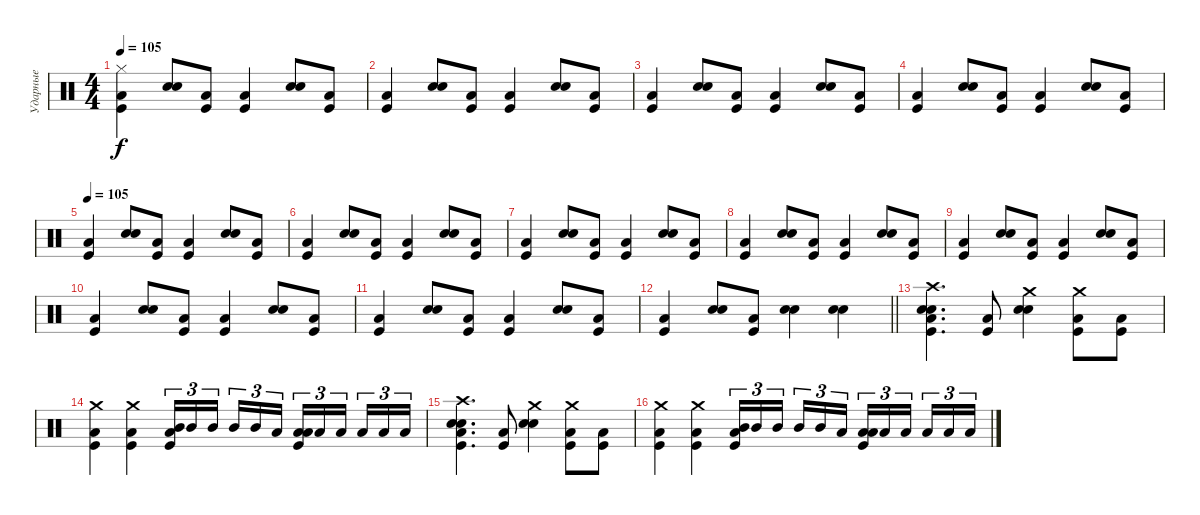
\track ("Ударные" "Ударные") {instrument percussion}
\staff {score}
\articulation defaults
\ts (4 4)
\tempo 105
\clef neutral
\ks c
("Hi-Hat (closed)" "Low Tom (hit)" "Kick (hit)").4{dy f} ("Electric Snare (hit)" "Snare (hit) 2").8 ("Low Tom (hit)" "Kick (hit)").8 ("Low Tom (hit)" "Kick (hit)").4 ("Electric Snare (hit)" "Snare (hit) 2").8 ("Low Tom (hit)" "Kick (hit)").8 |
("Low Tom (hit)" "Kick (hit)").4 ("Electric Snare (hit)" "Snare (hit) 2").8 ("Low Tom (hit)" "Kick (hit)").8 ("Low Tom (hit)" "Kick (hit)").4 ("Electric Snare (hit)" "Snare (hit) 2").8 ("Low Tom (hit)" "Kick (hit)").8 |
("Low Tom (hit)" "Kick (hit)").4 ("Electric Snare (hit)" "Snare (hit) 2").8 ("Low Tom (hit)" "Kick (hit)").8 ("Low Tom (hit)" "Kick (hit)").4 ("Electric Snare (hit)" "Snare (hit) 2").8 ("Low Tom (hit)" "Kick (hit)").8 |
("Low Tom (hit)" "Kick (hit)").4 ("Electric Snare (hit)" "Snare (hit) 2").8 ("Low Tom (hit)" "Kick (hit)").8 ("Low Tom (hit)" "Kick (hit)").4 ("Electric Snare (hit)" "Snare (hit) 2").8 ("Low Tom (hit)" "Kick (hit)").8 |
\tempo 105
("Low Tom (hit)" "Kick (hit)").4 ("Electric Snare (hit)" "Snare (hit) 2").8 ("Low Tom (hit)" "Kick (hit)").8 ("Low Tom (hit)" "Kick (hit)").4 ("Electric Snare (hit)" "Snare (hit) 2").8 ("Low Tom (hit)" "Kick (hit)").8 |
("Low Tom (hit)" "Kick (hit)").4 ("Electric Snare (hit)" "Snare (hit) 2").8 ("Low Tom (hit)" "Kick (hit)").8 ("Low Tom (hit)" "Kick (hit)").4 ("Electric Snare (hit)" "Snare (hit) 2").8 ("Low Tom (hit)" "Kick (hit)").8 |
("Low Tom (hit)" "Kick (hit)").4 ("Electric Snare (hit)" "Snare (hit) 2").8 ("Low Tom (hit)" "Kick (hit)").8 ("Low Tom (hit)" "Kick (hit)").4 ("Electric Snare (hit)" "Snare (hit) 2").8 ("Low Tom (hit)" "Kick (hit)").8 |
("Low Tom (hit)" "Kick (hit)").4 ("Electric Snare (hit)" "Snare (hit) 2").8 ("Low Tom (hit)" "Kick (hit)").8 ("Low Tom (hit)" "Kick (hit)").4 ("Electric Snare (hit)" "Snare (hit) 2").8 ("Low Tom (hit)" "Kick (hit)").8 |
("Low Tom (hit)" "Kick (hit)").4 ("Electric Snare (hit)" "Snare (hit) 2").8 ("Low Tom (hit)" "Kick (hit)").8 ("Low Tom (hit)" "Kick (hit)").4 ("Electric Snare (hit)" "Snare (hit) 2").8 ("Low Tom (hit)" "Kick (hit)").8 |
("Low Tom (hit)" "Kick (hit)").4 ("Electric Snare (hit)" "Snare (hit) 2").8 ("Low Tom (hit)" "Kick (hit)").8 ("Low Tom (hit)" "Kick (hit)").4 ("Electric Snare (hit)" "Snare (hit) 2").8 ("Low Tom (hit)" "Kick (hit)").8 |
("Low Tom (hit)" "Kick (hit)").4 ("Electric Snare (hit)" "Snare (hit) 2").8 ("Low Tom (hit)" "Kick (hit)").8 ("Low Tom (hit)" "Kick (hit)").4 ("Electric Snare (hit)" "Snare (hit) 2").8 ("Low Tom (hit)" "Kick (hit)").8 |
\barLineRight lightlight
("Low Tom (hit)" "Kick (hit)").4 ("Electric Snare (hit)" "Snare (hit) 2").8 ("Low Tom (hit)" "Kick (hit)").8 ("Electric Snare (hit)" "Snare (hit) 2").4 ("Electric Snare (hit)" "Snare (hit) 2").4 |
("Crash high (hit)" "Electric Snare (hit)" "Snare (hit) 2" "Low Tom (hit)" "Kick (hit)").4{d} ("Low Tom (hit)" "Kick (hit)").8 ("Crash medium (hit)" "Electric Snare (hit)" "Snare (hit) 2").4 ("Crash medium (hit)" "Low Tom (hit)" "Kick (hit)").8 ("Low Tom (hit)" "Kick (hit)").8 |
("Crash medium (hit)" "Low Tom (hit)" "Kick (hit)").4 ("Crash medium (hit)" "Low Tom (hit)" "Kick (hit)").4 ("Mid Tom (hit)" "Low Tom (hit)" "Kick (hit)").16{tu (3 2)} "Mid Tom (hit)".16{tu (3 2)} "Mid Tom (hit)".16{tu (3 2) beam splitsecondary} "Mid Tom (hit)".16{tu (3 2)} "Mid Tom (hit)".16{tu (3 2)} "Low Tom (hit)".16{tu (3 2)} ("Low Tom (hit)" "Kick (hit)" "Low Tom (hit)").16{tu (3 2)} "Low Tom (hit)".16{tu (3 2)} "Low Tom (hit)".16{tu (3 2) beam splitsecondary} "Low Tom (hit)".16{tu (3 2)} "Low Tom (hit)".16{tu (3 2)} "Low Tom (hit)".16{tu (3 2)} |
("Crash high (hit)" "Electric Snare (hit)" "Snare (hit) 2" "Low Tom (hit)" "Kick (hit)").4{d} ("Low Tom (hit)" "Kick (hit)").8 ("Crash medium (hit)" "Electric Snare (hit)" "Snare (hit) 2").4 ("Crash medium (hit)" "Low Tom (hit)" "Kick (hit)").8 ("Low Tom (hit)" "Kick (hit)").8 |
("Crash medium (hit)" "Low Tom (hit)" "Kick (hit)").4 ("Crash medium (hit)" "Low Tom (hit)" "Kick (hit)").4 ("Mid Tom (hit)" "Low Tom (hit)" "Kick (hit)").16{tu (3 2)} "Mid Tom (hit)".16{tu (3 2)} "Mid Tom (hit)".16{tu (3 2) beam splitsecondary} "Mid Tom (hit)".16{tu (3 2)} "Mid Tom (hit)".16{tu (3 2)} "Low Tom (hit)".16{tu (3 2)} ("Low Tom (hit)" "Kick (hit)" "Low Tom (hit)").16{tu (3 2)} "Low Tom (hit)".16{tu (3 2)} "Low Tom (hit)".16{tu (3 2) beam splitsecondary} "Low Tom (hit)".16{tu (3 2)} "Low Tom (hit)".16{tu (3 2)} "Low Tom (hit)".16{tu (3 2)}
